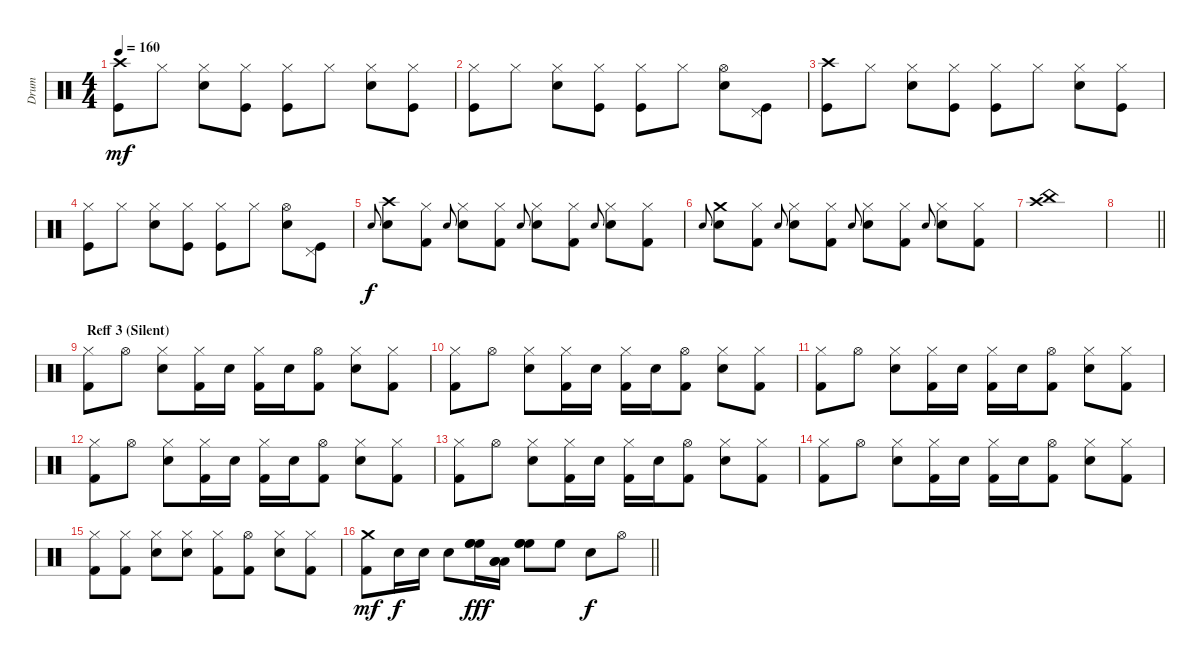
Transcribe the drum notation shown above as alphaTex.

\track ("Drum" "Drum") {instrument percussion}
\staff {score}
\articulation defaults
\ts (4 4)
\tempo 160
\clef neutral
\ks c
("Crash high (hit)" "Kick (hit)").8{dy mf} "Hi-Hat (closed)".8 ("Hi-Hat (closed)" "Electric Snare (hit)").8 ("Hi-Hat (closed)" "Kick (hit)").8 ("Hi-Hat (closed)" "Kick (hit)").8 "Hi-Hat (closed)".8 ("Hi-Hat (closed)" "Electric Snare (hit)").8 ("Hi-Hat (closed)" "Kick (hit)").8 |
("Hi-Hat (closed)" "Kick (hit)").8 "Hi-Hat (closed)".8 ("Hi-Hat (closed)" "Electric Snare (hit)").8 ("Hi-Hat (closed)" "Kick (hit)").8 ("Hi-Hat (closed)" "Kick (hit)").8 "Hi-Hat (closed)".8 ("Hi-Hat (open)" "Electric Snare (hit)").8 ("Pedal Hi-Hat (hit)" "Kick (hit)").8 |
("Crash high (hit)" "Kick (hit)").8 "Hi-Hat (closed)".8 ("Hi-Hat (closed)" "Electric Snare (hit)").8 ("Hi-Hat (closed)" "Kick (hit)").8 ("Hi-Hat (closed)" "Kick (hit)").8 "Hi-Hat (closed)".8 ("Hi-Hat (closed)" "Electric Snare (hit)").8 ("Hi-Hat (closed)" "Kick (hit)").8 |
("Hi-Hat (closed)" "Kick (hit)").8 "Hi-Hat (closed)".8 ("Hi-Hat (closed)" "Electric Snare (hit)").8 ("Hi-Hat (closed)" "Kick (hit)").8 ("Hi-Hat (closed)" "Kick (hit)").8 "Hi-Hat (closed)".8 ("Hi-Hat (open)" "Electric Snare (hit)").8 ("Pedal Hi-Hat (hit)" "Kick (hit)").8 |
"Electric Snare (hit)".8{gr onbeat dy f} ("Crash high (hit)" "Electric Snare (hit)").8 ("Hi-Hat (closed)" "Kick (hit) 2").8 "Electric Snare (hit)".8{gr onbeat} ("Hi-Hat (closed)" "Electric Snare (hit)").8 ("Hi-Hat (closed)" "Kick (hit) 2").8 "Electric Snare (hit)".8{gr onbeat} ("Hi-Hat (closed)" "Electric Snare (hit)").8 ("Hi-Hat (closed)" "Kick (hit) 2").8 "Electric Snare (hit)".8{gr onbeat} ("Hi-Hat (closed)" "Electric Snare (hit)").8 ("Hi-Hat (closed)" "Kick (hit) 2").8 |
"Electric Snare (hit)".8{gr onbeat} ("Crash medium (hit)" "Electric Snare (hit)").8 ("Hi-Hat (closed)" "Kick (hit) 2").8 "Electric Snare (hit)".8{gr onbeat} ("Hi-Hat (closed)" "Electric Snare (hit)").8 ("Hi-Hat (closed)" "Kick (hit) 2").8 "Electric Snare (hit)".8{gr onbeat} ("Hi-Hat (closed)" "Electric Snare (hit)").8 ("Hi-Hat (closed)" "Kick (hit) 2").8 "Electric Snare (hit)".8{gr onbeat} ("Hi-Hat (closed)" "Electric Snare (hit)").8 ("Hi-Hat (closed)" "Kick (hit) 2").8 |
("Crash high (hit)" "China (hit)").1 |
\barLineRight lightlight
|
\section ("" " Reff 3 (Silent)")
("Hi-Hat (closed)" "Kick (hit) 2").8 "Hi-Hat (open)".8 ("Hi-Hat (closed)" "Electric Snare (hit)").8 ("Hi-Hat (closed)" "Kick (hit) 2").16 "Electric Snare (hit)".16 ("Hi-Hat (closed)" "Kick (hit) 2").16 "Electric Snare (hit)".16 ("Hi-Hat (open)" "Kick (hit) 2").8 ("Hi-Hat (closed)" "Electric Snare (hit)").8 ("Hi-Hat (closed)" "Kick (hit) 2").8 |
("Hi-Hat (closed)" "Kick (hit) 2").8 "Hi-Hat (open)".8 ("Hi-Hat (closed)" "Electric Snare (hit)").8 ("Hi-Hat (closed)" "Kick (hit) 2").16 "Electric Snare (hit)".16 ("Hi-Hat (closed)" "Kick (hit) 2").16 "Electric Snare (hit)".16 ("Hi-Hat (open)" "Kick (hit) 2").8 ("Hi-Hat (closed)" "Electric Snare (hit)").8 ("Hi-Hat (closed)" "Kick (hit) 2").8 |
("Hi-Hat (closed)" "Kick (hit) 2").8 "Hi-Hat (open)".8 ("Hi-Hat (closed)" "Electric Snare (hit)").8 ("Hi-Hat (closed)" "Kick (hit) 2").16 "Electric Snare (hit)".16 ("Hi-Hat (closed)" "Kick (hit) 2").16 "Electric Snare (hit)".16 ("Hi-Hat (open)" "Kick (hit) 2").8 ("Hi-Hat (closed)" "Electric Snare (hit)").8 ("Hi-Hat (closed)" "Kick (hit) 2").8 |
("Hi-Hat (closed)" "Kick (hit) 2").8 "Hi-Hat (open)".8 ("Hi-Hat (closed)" "Electric Snare (hit)").8 ("Hi-Hat (closed)" "Kick (hit) 2").16 "Electric Snare (hit)".16 ("Hi-Hat (closed)" "Kick (hit) 2").16 "Electric Snare (hit)".16 ("Hi-Hat (open)" "Kick (hit) 2").8 ("Hi-Hat (closed)" "Electric Snare (hit)").8 ("Hi-Hat (closed)" "Kick (hit) 2").8 |
("Hi-Hat (closed)" "Kick (hit) 2").8 "Hi-Hat (open)".8 ("Hi-Hat (closed)" "Electric Snare (hit)").8 ("Hi-Hat (closed)" "Kick (hit) 2").16 "Electric Snare (hit)".16 ("Hi-Hat (closed)" "Kick (hit) 2").16 "Electric Snare (hit)".16 ("Hi-Hat (open)" "Kick (hit) 2").8 ("Hi-Hat (closed)" "Electric Snare (hit)").8 ("Hi-Hat (closed)" "Kick (hit) 2").8 |
("Hi-Hat (closed)" "Kick (hit) 2").8 "Hi-Hat (open)".8 ("Hi-Hat (closed)" "Electric Snare (hit)").8 ("Hi-Hat (closed)" "Kick (hit) 2").16 "Electric Snare (hit)".16 ("Hi-Hat (closed)" "Kick (hit) 2").16 "Electric Snare (hit)".16 ("Hi-Hat (open)" "Kick (hit) 2").8 ("Hi-Hat (closed)" "Electric Snare (hit)").8 ("Hi-Hat (closed)" "Kick (hit) 2").8 |
("Hi-Hat (closed)" "Kick (hit) 2").8 ("Hi-Hat (closed)" "Kick (hit) 2").8 ("Hi-Hat (closed)" "Electric Snare (hit)").8 ("Hi-Hat (closed)" "Electric Snare (hit)").8 ("Hi-Hat (closed)" "Kick (hit) 2").8 ("Hi-Hat (open)" "Kick (hit) 2").8 ("Hi-Hat (closed)" "Electric Snare (hit)").8 ("Hi-Hat (closed)" "Kick (hit) 2").8 |
\barLineRight lightlight
("Crash medium (hit)" "Kick (hit) 2").8{dy mf} "Electric Snare (hit)".16{dy f} "Electric Snare (hit)".16 "Electric Snare (hit)".8 ("High Floor Tom (hit)" "High Floor Tom (hit)" "High Floor Tom (hit)").16{dy fff} ("Low Tom (hit)" "Low Tom (hit)" "Low Tom (hit)").16 ("High Floor Tom (hit)" "High Floor Tom (hit)" "High Floor Tom (hit)").8 "High Floor Tom (hit)".8 "Electric Snare (hit)".8{dy f} "Hi-Hat (open)".8
